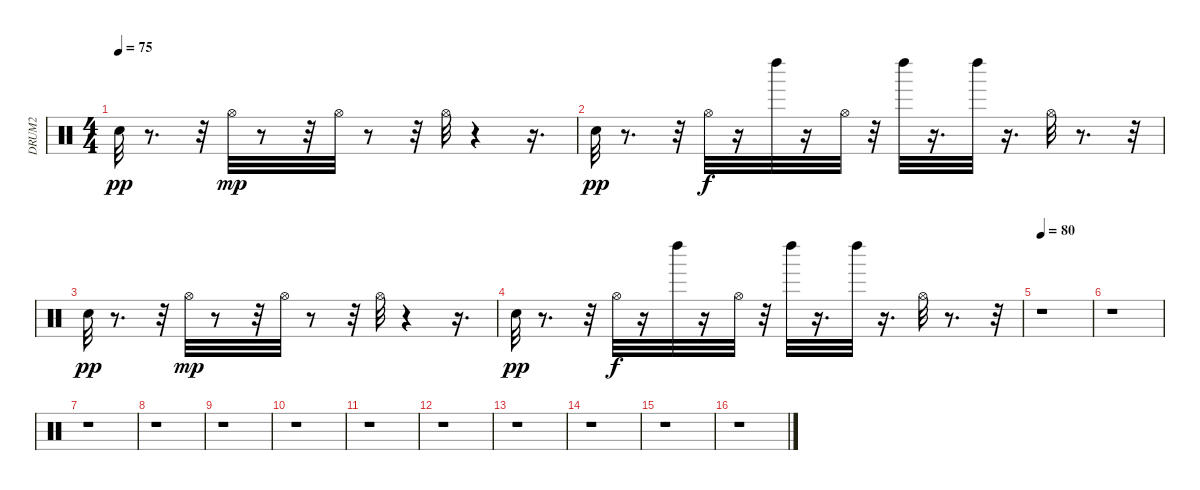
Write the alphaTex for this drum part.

\track ("DRUM2" "DRUM2") {instrument percussion}
\staff {score}
\articulation defaults
\ts (4 4)
\tempo 75
\clef neutral
\ks c "Snare (hit) 2".32{dy pp}
r.8{d} r.32 "Hi-Hat (open)".32{dy mp} r.8 r.32 "Hi-Hat (open)".32 r.8 r.32 "Hi-Hat (open)".32 r.4 r.16{d} |
"Snare (hit) 2".32{dy pp} r.8{d} r.32 "Hi-Hat (open)".32{dy f} r.16 "Left Maraca (hit)".32 r.16 "Hi-Hat (open)".32 r.32 "Left Maraca (hit)".32 r.16{d} "Left Maraca (hit)".32 r.16{d} "Hi-Hat (open)".32 r.8{d} r.32 |
"Snare (hit) 2".32{dy pp} r.8{d} r.32 "Hi-Hat (open)".32{dy mp} r.8 r.32 "Hi-Hat (open)".32 r.8 r.32 "Hi-Hat (open)".32 r.4 r.16{d} |
"Snare (hit) 2".32{dy pp} r.8{d} r.32 "Hi-Hat (open)".32{dy f} r.16 "Left Maraca (hit)".32 r.16 "Hi-Hat (open)".32 r.32 "Left Maraca (hit)".32 r.16{d} "Left Maraca (hit)".32 r.16{d} "Hi-Hat (open)".32 r.8{d} r.32 |
\tempo 80
r.1 |
r.1 |
r.1 |
r.1 |
r.1 |
r.1 |
r.1 |
r.1 |
r.1 |
r.1 |
r.1 |
r.1
